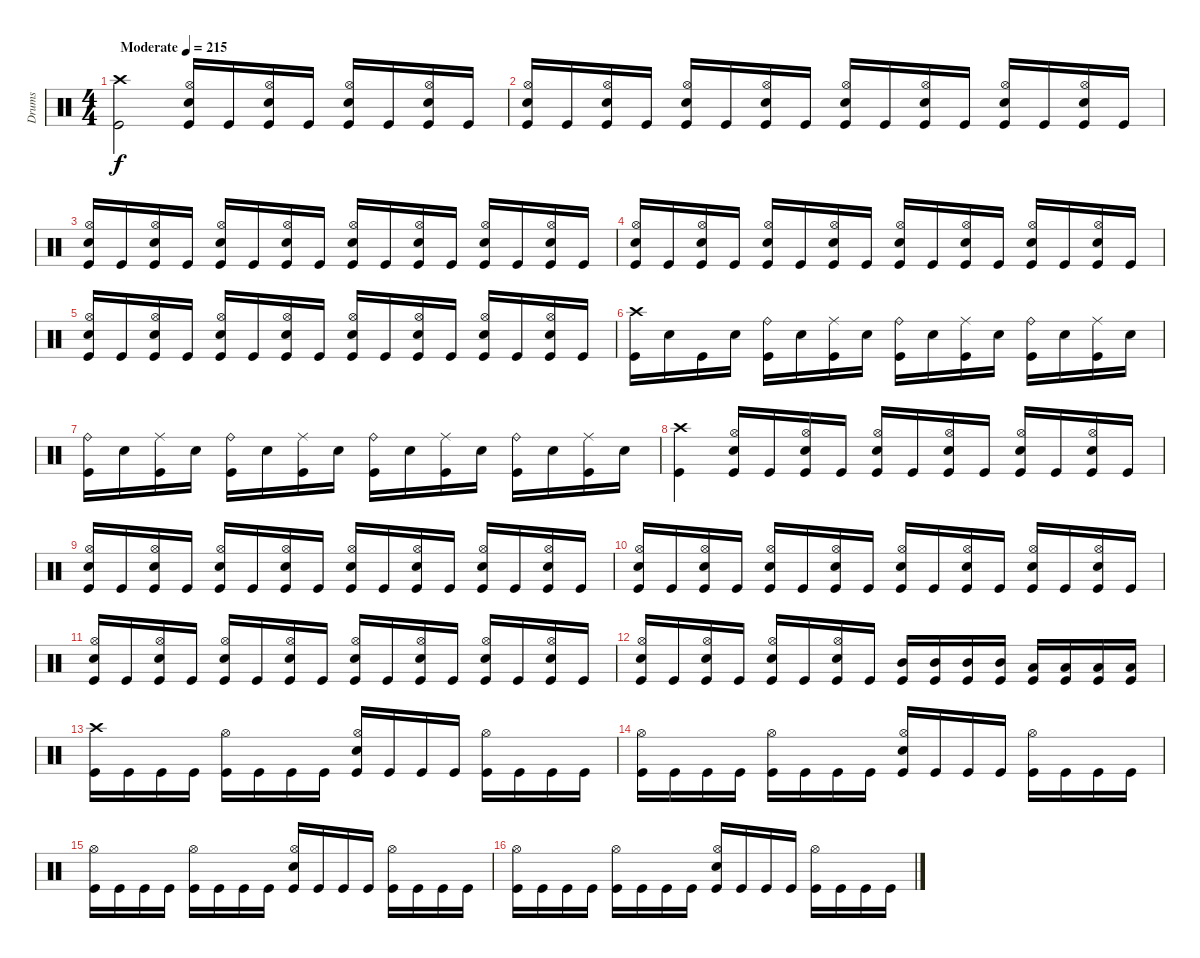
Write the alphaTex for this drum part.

\track ("Drums" "Drums") {instrument percussion}
\staff {score}
\articulation defaults
\ts (4 4)
\tempo (215 "Moderate")
\clef neutral
\ks c
("Crash high (hit)" "Kick (hit)").2{dy f} ("Hi-Hat (open)" "Snare (hit) 2" "Kick (hit)").16 "Kick (hit)".16 ("Hi-Hat (open)" "Snare (hit) 2" "Kick (hit)").16 "Kick (hit)".16 ("Hi-Hat (open)" "Snare (hit) 2" "Kick (hit)").16 "Kick (hit)".16 ("Hi-Hat (open)" "Snare (hit) 2" "Kick (hit)").16 "Kick (hit)".16 |
("Hi-Hat (open)" "Snare (hit) 2" "Kick (hit)").16 "Kick (hit)".16 ("Hi-Hat (open)" "Snare (hit) 2" "Kick (hit)").16 "Kick (hit)".16 ("Hi-Hat (open)" "Snare (hit) 2" "Kick (hit)").16 "Kick (hit)".16 ("Hi-Hat (open)" "Snare (hit) 2" "Kick (hit)").16 "Kick (hit)".16 ("Hi-Hat (open)" "Snare (hit) 2" "Kick (hit)").16 "Kick (hit)".16 ("Hi-Hat (open)" "Snare (hit) 2" "Kick (hit)").16 "Kick (hit)".16 ("Hi-Hat (open)" "Snare (hit) 2" "Kick (hit)").16 "Kick (hit)".16 ("Hi-Hat (open)" "Snare (hit) 2" "Kick (hit)").16 "Kick (hit)".16 |
("Hi-Hat (open)" "Snare (hit) 2" "Kick (hit)").16 "Kick (hit)".16 ("Hi-Hat (open)" "Snare (hit) 2" "Kick (hit)").16 "Kick (hit)".16 ("Hi-Hat (open)" "Snare (hit) 2" "Kick (hit)").16 "Kick (hit)".16 ("Hi-Hat (open)" "Snare (hit) 2" "Kick (hit)").16 "Kick (hit)".16 ("Hi-Hat (open)" "Snare (hit) 2" "Kick (hit)").16 "Kick (hit)".16 ("Hi-Hat (open)" "Snare (hit) 2" "Kick (hit)").16 "Kick (hit)".16 ("Hi-Hat (open)" "Snare (hit) 2" "Kick (hit)").16 "Kick (hit)".16 ("Hi-Hat (open)" "Snare (hit) 2" "Kick (hit)").16 "Kick (hit)".16 |
("Hi-Hat (open)" "Snare (hit) 2" "Kick (hit)").16 "Kick (hit)".16 ("Hi-Hat (open)" "Snare (hit) 2" "Kick (hit)").16 "Kick (hit)".16 ("Hi-Hat (open)" "Snare (hit) 2" "Kick (hit)").16 "Kick (hit)".16 ("Hi-Hat (open)" "Snare (hit) 2" "Kick (hit)").16 "Kick (hit)".16 ("Hi-Hat (open)" "Snare (hit) 2" "Kick (hit)").16 "Kick (hit)".16 ("Hi-Hat (open)" "Snare (hit) 2" "Kick (hit)").16 "Kick (hit)".16 ("Hi-Hat (open)" "Snare (hit) 2" "Kick (hit)").16 "Kick (hit)".16 ("Hi-Hat (open)" "Snare (hit) 2" "Kick (hit)").16 "Kick (hit)".16 |
("Hi-Hat (open)" "Snare (hit) 2" "Kick (hit)").16 "Kick (hit)".16 ("Hi-Hat (open)" "Snare (hit) 2" "Kick (hit)").16 "Kick (hit)".16 ("Hi-Hat (open)" "Snare (hit) 2" "Kick (hit)").16 "Kick (hit)".16 ("Hi-Hat (open)" "Snare (hit) 2" "Kick (hit)").16 "Kick (hit)".16 ("Hi-Hat (open)" "Snare (hit) 2" "Kick (hit)").16 "Kick (hit)".16 ("Hi-Hat (open)" "Snare (hit) 2" "Kick (hit)").16 "Kick (hit)".16 ("Hi-Hat (open)" "Snare (hit) 2" "Kick (hit)").16 "Kick (hit)".16 ("Hi-Hat (open)" "Snare (hit) 2" "Kick (hit)").16 "Kick (hit)".16 |
("Crash high (hit)" "Kick (hit)").16 "Snare (hit) 2".16 "Kick (hit)".16 "Snare (hit) 2".16 ("Ride (bell)" "Kick (hit)").16 "Snare (hit) 2".16 ("Ride (middle)" "Kick (hit)").16 "Snare (hit) 2".16 ("Ride (bell)" "Kick (hit)").16 "Snare (hit) 2".16 ("Ride (middle)" "Kick (hit)").16 "Snare (hit) 2".16 ("Ride (bell)" "Kick (hit)").16 "Snare (hit) 2".16 ("Ride (middle)" "Kick (hit)").16 "Snare (hit) 2".16 |
("Ride (bell)" "Kick (hit)").16 "Snare (hit) 2".16 ("Ride (middle)" "Kick (hit)").16 "Snare (hit) 2".16 ("Ride (bell)" "Kick (hit)").16 "Snare (hit) 2".16 ("Ride (middle)" "Kick (hit)").16 "Snare (hit) 2".16 ("Ride (bell)" "Kick (hit)").16 "Snare (hit) 2".16 ("Ride (middle)" "Kick (hit)").16 "Snare (hit) 2".16 ("Ride (bell)" "Kick (hit)").16 "Snare (hit) 2".16 ("Ride (middle)" "Kick (hit)").16 "Snare (hit) 2".16 |
("Crash high (hit)" "Kick (hit)").4 ("Hi-Hat (open)" "Snare (hit) 2" "Kick (hit)").16 "Kick (hit)".16 ("Hi-Hat (open)" "Snare (hit) 2" "Kick (hit)").16 "Kick (hit)".16 ("Hi-Hat (open)" "Snare (hit) 2" "Kick (hit)").16 "Kick (hit)".16 ("Hi-Hat (open)" "Snare (hit) 2" "Kick (hit)").16 "Kick (hit)".16 ("Hi-Hat (open)" "Snare (hit) 2" "Kick (hit)").16 "Kick (hit)".16 ("Hi-Hat (open)" "Snare (hit) 2" "Kick (hit)").16 "Kick (hit)".16 |
("Hi-Hat (open)" "Snare (hit) 2" "Kick (hit)").16 "Kick (hit)".16 ("Hi-Hat (open)" "Snare (hit) 2" "Kick (hit)").16 "Kick (hit)".16 ("Hi-Hat (open)" "Snare (hit) 2" "Kick (hit)").16 "Kick (hit)".16 ("Hi-Hat (open)" "Snare (hit) 2" "Kick (hit)").16 "Kick (hit)".16 ("Hi-Hat (open)" "Snare (hit) 2" "Kick (hit)").16 "Kick (hit)".16 ("Hi-Hat (open)" "Snare (hit) 2" "Kick (hit)").16 "Kick (hit)".16 ("Hi-Hat (open)" "Snare (hit) 2" "Kick (hit)").16 "Kick (hit)".16 ("Hi-Hat (open)" "Snare (hit) 2" "Kick (hit)").16 "Kick (hit)".16 |
("Hi-Hat (open)" "Snare (hit) 2" "Kick (hit)").16 "Kick (hit)".16 ("Hi-Hat (open)" "Snare (hit) 2" "Kick (hit)").16 "Kick (hit)".16 ("Hi-Hat (open)" "Snare (hit) 2" "Kick (hit)").16 "Kick (hit)".16 ("Hi-Hat (open)" "Snare (hit) 2" "Kick (hit)").16 "Kick (hit)".16 ("Hi-Hat (open)" "Snare (hit) 2" "Kick (hit)").16 "Kick (hit)".16 ("Hi-Hat (open)" "Snare (hit) 2" "Kick (hit)").16 "Kick (hit)".16 ("Hi-Hat (open)" "Snare (hit) 2" "Kick (hit)").16 "Kick (hit)".16 ("Hi-Hat (open)" "Snare (hit) 2" "Kick (hit)").16 "Kick (hit)".16 |
("Hi-Hat (open)" "Snare (hit) 2" "Kick (hit)").16 "Kick (hit)".16 ("Hi-Hat (open)" "Snare (hit) 2" "Kick (hit)").16 "Kick (hit)".16 ("Hi-Hat (open)" "Snare (hit) 2" "Kick (hit)").16 "Kick (hit)".16 ("Hi-Hat (open)" "Snare (hit) 2" "Kick (hit)").16 "Kick (hit)".16 ("Hi-Hat (open)" "Snare (hit) 2" "Kick (hit)").16 "Kick (hit)".16 ("Hi-Hat (open)" "Snare (hit) 2" "Kick (hit)").16 "Kick (hit)".16 ("Hi-Hat (open)" "Snare (hit) 2" "Kick (hit)").16 "Kick (hit)".16 ("Hi-Hat (open)" "Snare (hit) 2" "Kick (hit)").16 "Kick (hit)".16 |
("Hi-Hat (open)" "Snare (hit) 2" "Kick (hit)").16 "Kick (hit)".16 ("Hi-Hat (open)" "Snare (hit) 2" "Kick (hit)").16 "Kick (hit)".16 ("Hi-Hat (open)" "Snare (hit) 2" "Kick (hit)").16 "Kick (hit)".16 ("Hi-Hat (open)" "Snare (hit) 2" "Kick (hit)").16 "Kick (hit)".16 ("Mid Tom (hit)" "Kick (hit)").16 ("Mid Tom (hit)" "Kick (hit)").16 ("Mid Tom (hit)" "Kick (hit)").16 ("Mid Tom (hit)" "Kick (hit)").16 ("Low Tom (hit)" "Kick (hit)").16 ("Low Tom (hit)" "Kick (hit)").16 ("Low Tom (hit)" "Kick (hit)").16 ("Low Tom (hit)" "Kick (hit)").16 |
("Crash high (hit)" "Kick (hit)").16 "Kick (hit)".16 "Kick (hit)".16 "Kick (hit)".16 ("Hi-Hat (open)" "Kick (hit)").16 "Kick (hit)".16 "Kick (hit)".16 "Kick (hit)".16 ("Hi-Hat (open)" "Snare (hit) 2" "Kick (hit)").16 "Kick (hit)".16 "Kick (hit)".16 "Kick (hit)".16 ("Hi-Hat (open)" "Kick (hit)").16 "Kick (hit)".16 "Kick (hit)".16 "Kick (hit)".16 |
("Hi-Hat (open)" "Kick (hit)").16 "Kick (hit)".16 "Kick (hit)".16 "Kick (hit)".16 ("Hi-Hat (open)" "Kick (hit)").16 "Kick (hit)".16 "Kick (hit)".16 "Kick (hit)".16 ("Hi-Hat (open)" "Snare (hit) 2" "Kick (hit)").16 "Kick (hit)".16 "Kick (hit)".16 "Kick (hit)".16 ("Hi-Hat (open)" "Kick (hit)").16 "Kick (hit)".16 "Kick (hit)".16 "Kick (hit)".16 |
("Hi-Hat (open)" "Kick (hit)").16 "Kick (hit)".16 "Kick (hit)".16 "Kick (hit)".16 ("Hi-Hat (open)" "Kick (hit)").16 "Kick (hit)".16 "Kick (hit)".16 "Kick (hit)".16 ("Hi-Hat (open)" "Snare (hit) 2" "Kick (hit)").16 "Kick (hit)".16 "Kick (hit)".16 "Kick (hit)".16 ("Hi-Hat (open)" "Kick (hit)").16 "Kick (hit)".16 "Kick (hit)".16 "Kick (hit)".16 |
("Hi-Hat (open)" "Kick (hit)").16 "Kick (hit)".16 "Kick (hit)".16 "Kick (hit)".16 ("Hi-Hat (open)" "Kick (hit)").16 "Kick (hit)".16 "Kick (hit)".16 "Kick (hit)".16 ("Hi-Hat (open)" "Snare (hit) 2" "Kick (hit)").16 "Kick (hit)".16 "Kick (hit)".16 "Kick (hit)".16 ("Hi-Hat (open)" "Kick (hit)").16 "Kick (hit)".16 "Kick (hit)".16 "Kick (hit)".16
